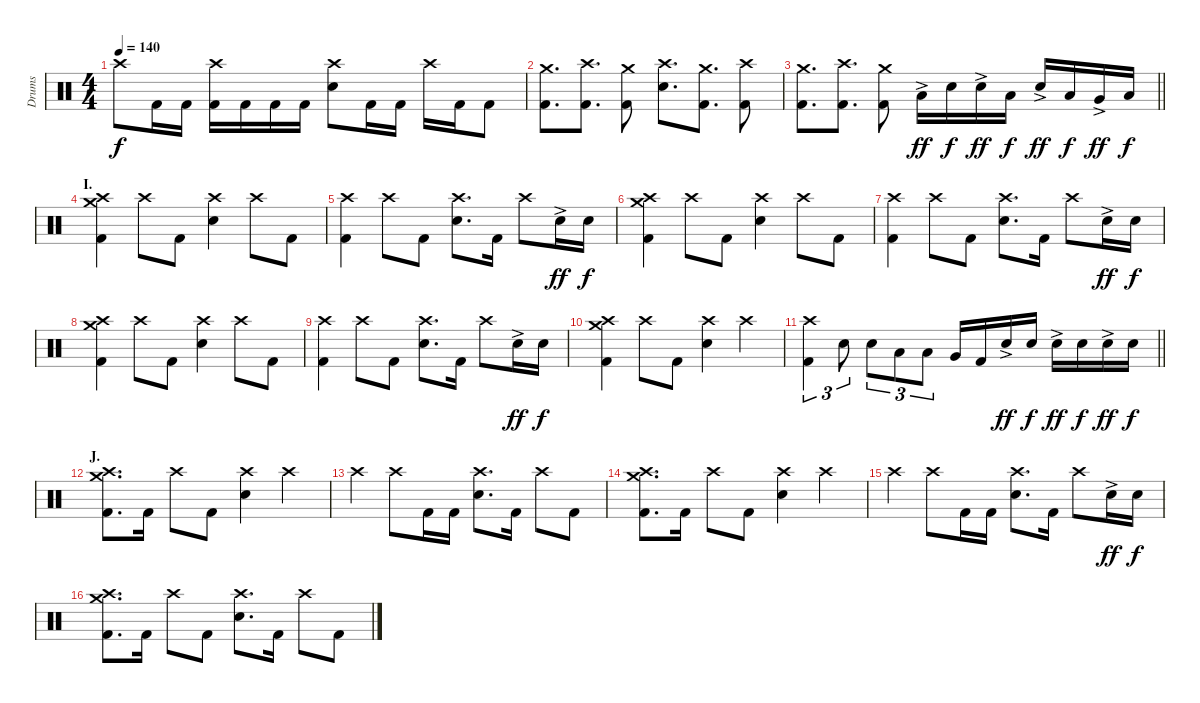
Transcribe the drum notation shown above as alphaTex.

\track ("Drums" "Drums") {instrument percussion}
\staff {score}
\articulation defaults
\ts (4 4)
\tempo 140
\clef neutral
\ks c "Crash high (hit)".8{dy f} "Kick (hit) 2".16 "Kick (hit) 2".16
("Crash high (hit)" "Kick (hit) 2").16 "Kick (hit) 2".16 "Kick (hit) 2".16 "Kick (hit) 2".16 ("Crash high (hit)" "Electric Snare (hit)").8 "Kick (hit) 2".16 "Kick (hit) 2".16 "Crash high (hit)".16 "Kick (hit) 2".16 "Kick (hit) 2".8 |
("Crash medium (hit)" "Kick (hit) 2").8{d} ("Crash high (hit)" "Kick (hit) 2").8{d} ("Crash medium (hit)" "Kick (hit) 2").8 ("Crash high (hit)" "Electric Snare (hit)").8{d} ("Crash medium (hit)" "Kick (hit) 2").8{d} ("Crash high (hit)" "Kick (hit) 2").8 |
\barLineRight lightlight
("Crash medium (hit)" "Kick (hit) 2").8{d} ("Crash high (hit)" "Kick (hit) 2").8{d} ("Crash medium (hit)" "Kick (hit) 2").8 "Low Tom (hit)"{ac}.16{dy ff} "Electric Snare (hit)".16{dy f} "Electric Snare (hit)"{ac}.16{dy ff} "Low Tom (hit)".16{dy f} "Electric Snare (hit)"{ac}.16{dy ff} "Low Tom (hit)".16{dy f} "Very Low Tom (hit)"{ac}.16{dy ff} "Low Floor Tom (hit)".16{dy f} |
\section ("" "I.")
("Crash medium (hit)" "Crash high (hit)" "Kick (hit) 2").4 "Crash high (hit)".8 "Kick (hit) 2".8 ("Crash high (hit)" "Electric Snare (hit)").4 "Crash high (hit)".8 "Kick (hit) 2".8 |
("Crash high (hit)" "Kick (hit) 2").4 "Crash high (hit)".8 "Kick (hit) 2".8 ("Crash high (hit)" "Electric Snare (hit)").8{d} "Kick (hit) 2".16 "Crash high (hit)".8 "Electric Snare (hit)"{ac}.16{dy ff} "Electric Snare (hit)".16{dy f} |
("Crash medium (hit)" "Crash high (hit)" "Kick (hit) 2").4 "Crash high (hit)".8 "Kick (hit) 2".8 ("Crash high (hit)" "Electric Snare (hit)").4 "Crash high (hit)".8 "Kick (hit) 2".8 |
("Crash high (hit)" "Kick (hit) 2").4 "Crash high (hit)".8 "Kick (hit) 2".8 ("Crash high (hit)" "Electric Snare (hit)").8{d} "Kick (hit) 2".16 "Crash high (hit)".8 "Electric Snare (hit)"{ac}.16{dy ff} "Electric Snare (hit)".16{dy f} |
("Crash medium (hit)" "Crash high (hit)" "Kick (hit) 2").4 "Crash high (hit)".8 "Kick (hit) 2".8 ("Crash high (hit)" "Electric Snare (hit)").4 "Crash high (hit)".8 "Kick (hit) 2".8 |
("Crash high (hit)" "Kick (hit) 2").4 "Crash high (hit)".8 "Kick (hit) 2".8 ("Crash high (hit)" "Electric Snare (hit)").8{d} "Kick (hit) 2".16 "Crash high (hit)".8 "Electric Snare (hit)"{ac}.16{dy ff} "Electric Snare (hit)".16{dy f} |
("Crash medium (hit)" "Crash high (hit)" "Kick (hit) 2").4 "Crash high (hit)".8 "Kick (hit) 2".8 ("Crash high (hit)" "Electric Snare (hit)").4 "Crash high (hit)".4 |
\barLineRight lightlight
("Crash high (hit)" "Kick (hit) 2").4{tu (3 2)} "Electric Snare (hit)".8{tu (3 2)} "Electric Snare (hit)".8{tu (3 2)} "Low Tom (hit)".8{tu (3 2)} "Low Tom (hit)".8{tu (3 2)} "Very Low Tom (hit)".16 "Kick (hit) 2".16 "Electric Snare (hit)"{ac}.16{dy ff} "Electric Snare (hit)".16{dy f} "Electric Snare (hit)"{ac}.16{dy ff} "Electric Snare (hit)".16{dy f} "Electric Snare (hit)"{ac}.16{dy ff} "Electric Snare (hit)".16{dy f} |
\section ("" "J.")
("Crash medium (hit)" "Crash high (hit)" "Kick (hit) 2").8{d} "Kick (hit) 2".16 "Crash high (hit)".8 "Kick (hit) 2".8 ("Crash high (hit)" "Electric Snare (hit)").4 "Crash high (hit)".4 |
"Crash high (hit)".4 "Crash high (hit)".8 "Kick (hit) 2".16 "Kick (hit) 2".16 ("Crash high (hit)" "Electric Snare (hit)").8{d} "Kick (hit) 2".16 "Crash high (hit)".8 "Kick (hit) 2".8 |
("Crash medium (hit)" "Crash high (hit)" "Kick (hit) 2").8{d} "Kick (hit) 2".16 "Crash high (hit)".8 "Kick (hit) 2".8 ("Crash high (hit)" "Electric Snare (hit)").4 "Crash high (hit)".4 |
"Crash high (hit)".4 "Crash high (hit)".8 "Kick (hit) 2".16 "Kick (hit) 2".16 ("Crash high (hit)" "Electric Snare (hit)").8{d} "Kick (hit) 2".16 "Crash high (hit)".8 "Electric Snare (hit)"{ac}.16{dy ff} "Electric Snare (hit)".16{dy f} |
("Crash medium (hit)" "Crash high (hit)" "Kick (hit) 2").8{d} "Kick (hit) 2".16 "Crash high (hit)".8 "Kick (hit) 2".8 ("Crash high (hit)" "Electric Snare (hit)").8{d} "Kick (hit) 2".16 "Crash high (hit)".8 "Kick (hit) 2".8
